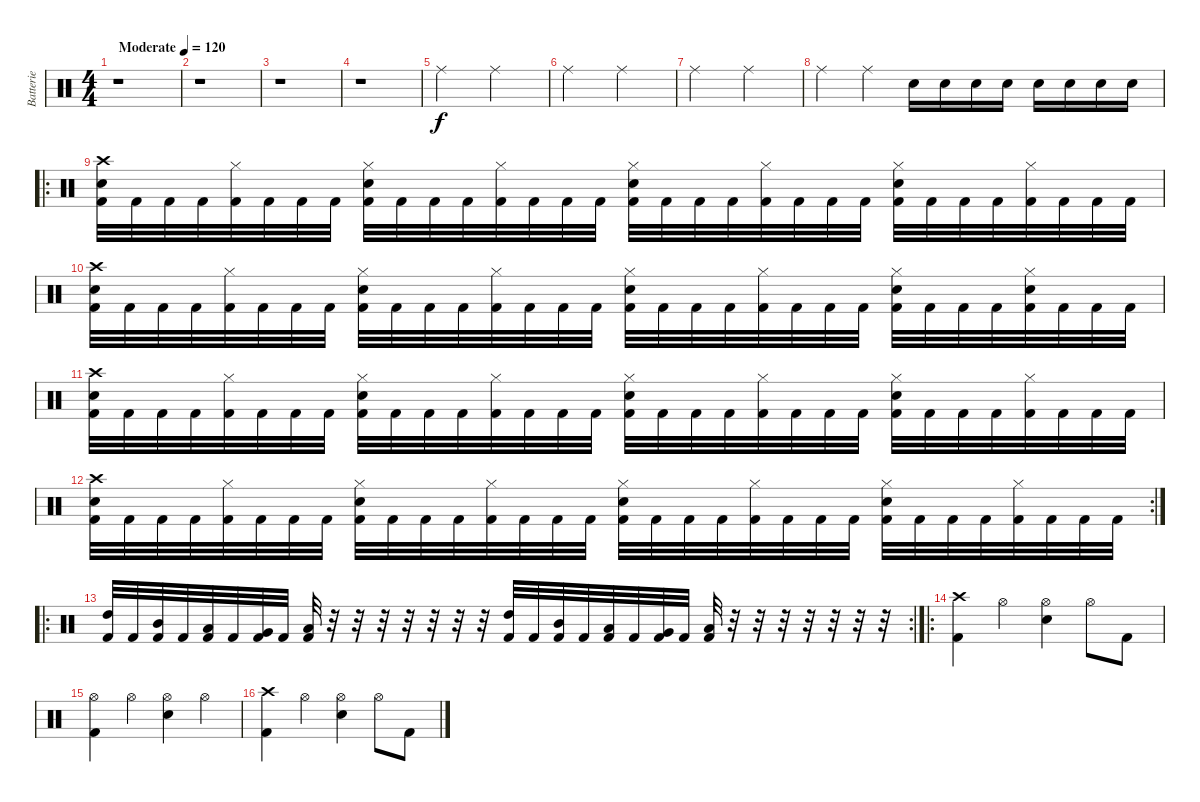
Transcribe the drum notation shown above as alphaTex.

\track ("Batterie" "Batterie") {instrument percussion}
\staff {score}
\articulation defaults
\ts (4 4)
\tempo (120 "Moderate")
\clef neutral
\ks c
r.1{dy f} |
r.1 |
r.1 |
r.1 |
"Ride (middle)".2 "Ride (middle)".2 |
"Ride (middle)".2 "Ride (middle)".2 |
"Ride (middle)".2 "Ride (middle)".2 |
"Ride (middle)".4 "Ride (middle)".4 "Electric Snare (hit)".16 "Electric Snare (hit)".16 "Electric Snare (hit)".16 "Electric Snare (hit)".16 "Electric Snare (hit)".16 "Electric Snare (hit)".16 "Electric Snare (hit)".16 "Electric Snare (hit)".16 |
\ro
("Crash high (hit)" "Electric Snare (hit)" "Kick (hit) 2").32 "Kick (hit) 2".32 "Kick (hit) 2".32 "Kick (hit) 2".32 ("Hi-Hat (closed)" "Kick (hit) 2").32 "Kick (hit) 2".32 "Kick (hit) 2".32 "Kick (hit) 2".32 ("Hi-Hat (closed)" "Electric Snare (hit)" "Kick (hit) 2").32 "Kick (hit) 2".32 "Kick (hit) 2".32 "Kick (hit) 2".32 ("Hi-Hat (closed)" "Kick (hit) 2").32 "Kick (hit) 2".32 "Kick (hit) 2".32 "Kick (hit) 2".32 ("Hi-Hat (closed)" "Electric Snare (hit)" "Kick (hit) 2").32 "Kick (hit) 2".32 "Kick (hit) 2".32 "Kick (hit) 2".32 ("Hi-Hat (closed)" "Kick (hit) 2").32 "Kick (hit) 2".32 "Kick (hit) 2".32 "Kick (hit) 2".32 ("Hi-Hat (closed)" "Electric Snare (hit)" "Kick (hit) 2").32 "Kick (hit) 2".32 "Kick (hit) 2".32 "Kick (hit) 2".32 ("Hi-Hat (closed)" "Kick (hit) 2").32 "Kick (hit) 2".32 "Kick (hit) 2".32 "Kick (hit) 2".32 |
("Crash high (hit)" "Electric Snare (hit)" "Kick (hit) 2").32 "Kick (hit) 2".32 "Kick (hit) 2".32 "Kick (hit) 2".32 ("Hi-Hat (closed)" "Kick (hit) 2").32 "Kick (hit) 2".32 "Kick (hit) 2".32 "Kick (hit) 2".32 ("Hi-Hat (closed)" "Electric Snare (hit)" "Kick (hit) 2").32 "Kick (hit) 2".32 "Kick (hit) 2".32 "Kick (hit) 2".32 ("Hi-Hat (closed)" "Kick (hit) 2").32 "Kick (hit) 2".32 "Kick (hit) 2".32 "Kick (hit) 2".32 ("Hi-Hat (closed)" "Electric Snare (hit)" "Kick (hit) 2").32 "Kick (hit) 2".32 "Kick (hit) 2".32 "Kick (hit) 2".32 ("Hi-Hat (closed)" "Kick (hit) 2").32 "Kick (hit) 2".32 "Kick (hit) 2".32 "Kick (hit) 2".32 ("Hi-Hat (closed)" "Electric Snare (hit)" "Kick (hit) 2").32 "Kick (hit) 2".32 "Kick (hit) 2".32 "Kick (hit) 2".32 ("Hi-Hat (closed)" "Electric Snare (hit)" "Kick (hit) 2").32 "Kick (hit) 2".32 "Kick (hit) 2".32 "Kick (hit) 2".32 |
("Crash high (hit)" "Electric Snare (hit)" "Kick (hit) 2").32 "Kick (hit) 2".32 "Kick (hit) 2".32 "Kick (hit) 2".32 ("Hi-Hat (closed)" "Kick (hit) 2").32 "Kick (hit) 2".32 "Kick (hit) 2".32 "Kick (hit) 2".32 ("Hi-Hat (closed)" "Electric Snare (hit)" "Kick (hit) 2").32 "Kick (hit) 2".32 "Kick (hit) 2".32 "Kick (hit) 2".32 ("Hi-Hat (closed)" "Kick (hit) 2").32 "Kick (hit) 2".32 "Kick (hit) 2".32 "Kick (hit) 2".32 ("Hi-Hat (closed)" "Electric Snare (hit)" "Kick (hit) 2").32 "Kick (hit) 2".32 "Kick (hit) 2".32 "Kick (hit) 2".32 ("Hi-Hat (closed)" "Kick (hit) 2").32 "Kick (hit) 2".32 "Kick (hit) 2".32 "Kick (hit) 2".32 ("Hi-Hat (closed)" "Electric Snare (hit)" "Kick (hit) 2").32 "Kick (hit) 2".32 "Kick (hit) 2".32 "Kick (hit) 2".32 ("Hi-Hat (closed)" "Kick (hit) 2").32 "Kick (hit) 2".32 "Kick (hit) 2".32 "Kick (hit) 2".32 |
\rc 2
("Crash high (hit)" "Electric Snare (hit)" "Kick (hit) 2").32 "Kick (hit) 2".32 "Kick (hit) 2".32 "Kick (hit) 2".32 ("Hi-Hat (closed)" "Kick (hit) 2").32 "Kick (hit) 2".32 "Kick (hit) 2".32 "Kick (hit) 2".32 ("Hi-Hat (closed)" "Electric Snare (hit)" "Kick (hit) 2").32 "Kick (hit) 2".32 "Kick (hit) 2".32 "Kick (hit) 2".32 ("Hi-Hat (closed)" "Kick (hit) 2").32 "Kick (hit) 2".32 "Kick (hit) 2".32 "Kick (hit) 2".32 ("Hi-Hat (closed)" "Electric Snare (hit)" "Kick (hit) 2").32 "Kick (hit) 2".32 "Kick (hit) 2".32 "Kick (hit) 2".32 ("Hi-Hat (closed)" "Kick (hit) 2").32 "Kick (hit) 2".32 "Kick (hit) 2".32 "Kick (hit) 2".32 ("Hi-Hat (closed)" "Electric Snare (hit)" "Kick (hit) 2").32 "Kick (hit) 2".32 "Kick (hit) 2".32 "Kick (hit) 2".32 ("Hi-Hat (closed)" "Kick (hit) 2").32 "Kick (hit) 2".32 "Kick (hit) 2".32 "Kick (hit) 2".32 |
\ro
\rc 2
("High Tom (hit)" "Kick (hit) 2").32 "Kick (hit) 2".32 ("Mid Tom (hit)" "Kick (hit) 2").32 "Kick (hit) 2".32 ("Low Tom (hit)" "Kick (hit) 2").32 "Kick (hit) 2".32 ("Very Low Tom (hit)" "Kick (hit) 2").32 "Kick (hit) 2".32 ("Low Floor Tom (hit)" "Kick (hit) 2").32 r.32 r.32 r.32 r.32 r.32 r.32 r.32 ("High Tom (hit)" "Kick (hit) 2").32 "Kick (hit) 2".32 ("Mid Tom (hit)" "Kick (hit) 2").32 "Kick (hit) 2".32 ("Low Tom (hit)" "Kick (hit) 2").32 "Kick (hit) 2".32 ("Very Low Tom (hit)" "Kick (hit) 2").32 "Kick (hit) 2".32 ("Low Floor Tom (hit)" "Kick (hit) 2").32 r.32 r.32 r.32 r.32 r.32 r.32 r.32 |
\ro
("Crash high (hit)" "Kick (hit) 2").4 "Hi-Hat (open)".4 ("Hi-Hat (open)" "Electric Snare (hit)").4 "Hi-Hat (open)".8 "Kick (hit) 2".8 |
("Hi-Hat (open)" "Kick (hit) 2").4 "Hi-Hat (open)".4 ("Hi-Hat (open)" "Electric Snare (hit)").4 "Hi-Hat (open)".4 |
("Crash high (hit)" "Kick (hit) 2").4 "Hi-Hat (open)".4 ("Hi-Hat (open)" "Electric Snare (hit)").4 "Hi-Hat (open)".8 "Kick (hit) 2".8
